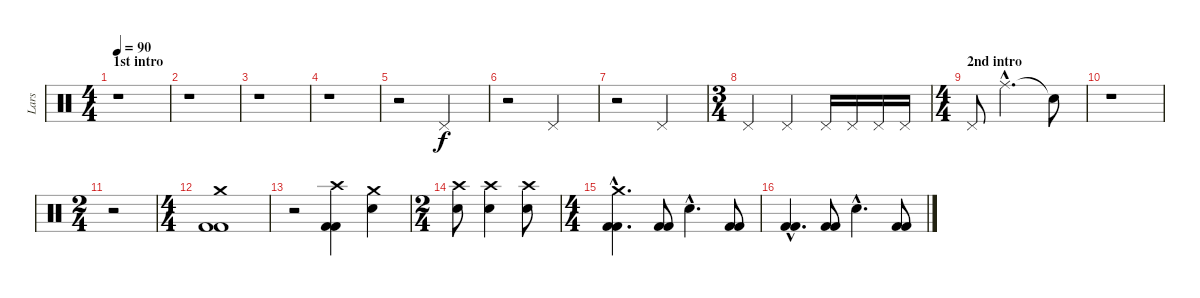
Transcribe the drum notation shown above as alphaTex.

\track ("Lars" "Lars") {instrument percussion}
\staff {score}
\articulation defaults
\ts (4 4)
\section ("" "1st intro")
\tempo 90
\clef neutral
\ks c
r.1{dy f} |
r.1 |
r.1 |
r.1 |
r.2 "Pedal Hi-Hat (hit)".2 |
r.2 "Pedal Hi-Hat (hit)".2 |
r.2 "Pedal Hi-Hat (hit)".2 |
\ts (3 4)
"Pedal Hi-Hat (hit)".4 "Pedal Hi-Hat (hit)".4 "Pedal Hi-Hat (hit)".16 "Pedal Hi-Hat (hit)".16 "Pedal Hi-Hat (hit)".16 "Pedal Hi-Hat (hit)".16 |
\ts (4 4)
\section ("" "2nd intro")
"Pedal Hi-Hat (hit)".8 "Ride (middle)"{hac}.2{d} "Snare (hit)"{t}.8 |
r.1 |
\ts (2 4)
r.2 |
\ts (4 4)
("Crash medium (hit)" "Kick (hit) 2" "Kick (hit) 2").1 |
r.2 ("Crash high (hit)" "Kick (hit) 2" "Kick (hit) 2").4 ("Crash medium (hit)" "Snare (hit) 2").4 |
\ts (2 4)
("Crash high (hit)" "Snare (hit) 2").8 ("Crash high (hit)" "Snare (hit) 2").4 ("Crash high (hit)" "Snare (hit) 2").8 |
\ts (4 4)
("Crash medium (hit)"{hac} "Kick (hit) 2"{hac} "Kick (hit) 2"{hac}).4{d} ("Kick (hit) 2" "Kick (hit) 2").8 "Snare (hit) 2"{hac}.4{d} ("Kick (hit) 2" "Kick (hit) 2").8 |
("Kick (hit) 2"{hac} "Kick (hit) 2"{hac}).4{d} ("Kick (hit) 2" "Kick (hit) 2").8 "Snare (hit) 2"{hac}.4{d} ("Kick (hit) 2" "Kick (hit) 2").8
